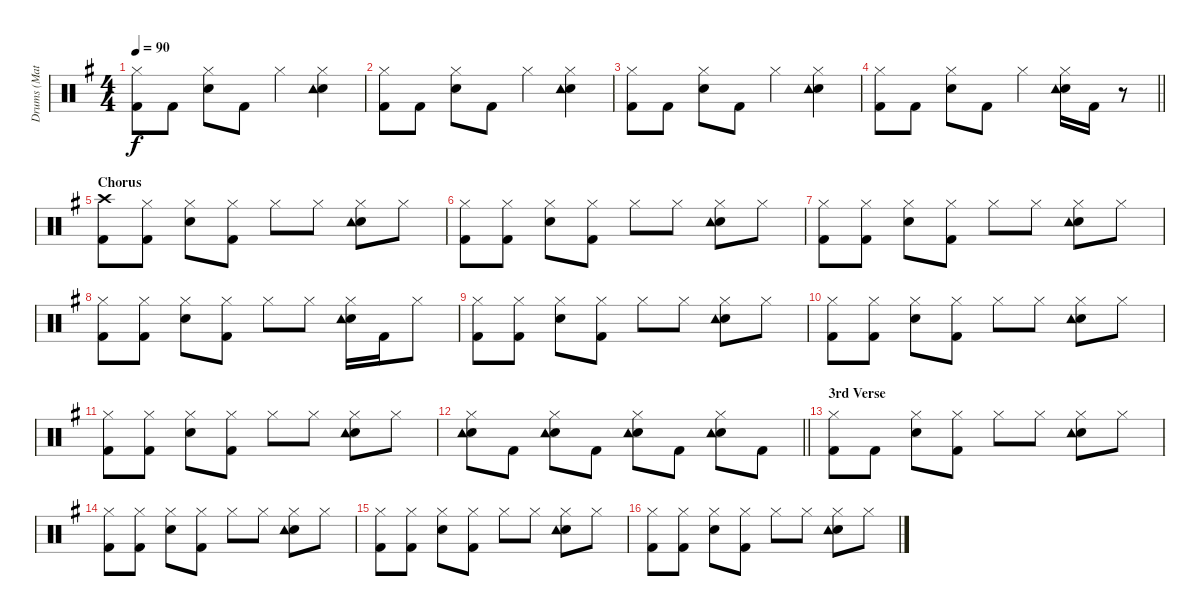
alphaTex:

\track ("Drums (Matt)" "Drums (Mat") {instrument percussion}
\staff {score}
\articulation defaults
\ts (4 4)
\tempo 90
\clef neutral
\ks g
("Hi-Hat (closed)" "Kick (hit) 2").8{dy f} "Kick (hit) 2".8 ("Hi-Hat (closed)" "Snare (hit) 2").8 "Kick (hit) 2".8 "Hi-Hat (closed)".4 ("Hi-Hat (closed)" "Snare (hit) 2" "Tambourine (hit)").4 |
("Hi-Hat (closed)" "Kick (hit) 2").8 "Kick (hit) 2".8 ("Hi-Hat (closed)" "Snare (hit) 2").8 "Kick (hit) 2".8 "Hi-Hat (closed)".4 ("Hi-Hat (closed)" "Snare (hit) 2" "Tambourine (hit)").4 |
("Hi-Hat (closed)" "Kick (hit) 2").8 "Kick (hit) 2".8 ("Hi-Hat (closed)" "Snare (hit) 2").8 "Kick (hit) 2".8 "Hi-Hat (closed)".4 ("Hi-Hat (closed)" "Snare (hit) 2" "Tambourine (hit)").4 |
\barLineRight lightlight
("Hi-Hat (closed)" "Kick (hit) 2").8 "Kick (hit) 2".8 ("Hi-Hat (closed)" "Snare (hit) 2").8 "Kick (hit) 2".8 "Hi-Hat (closed)".4 ("Hi-Hat (closed)" "Snare (hit) 2" "Tambourine (hit)").16 "Kick (hit) 2".16 r.8 |
\section ("" "Chorus")
("Crash high (hit)" "Kick (hit) 2").8 ("Hi-Hat (closed)" "Kick (hit) 2").8 ("Hi-Hat (closed)" "Snare (hit) 2").8 ("Hi-Hat (closed)" "Kick (hit) 2").8 "Hi-Hat (closed)".8 "Hi-Hat (closed)".8 ("Hi-Hat (closed)" "Snare (hit) 2" "Tambourine (hit)").8 "Hi-Hat (closed)".8 |
("Hi-Hat (closed)" "Kick (hit) 2").8 ("Hi-Hat (closed)" "Kick (hit) 2").8 ("Hi-Hat (closed)" "Snare (hit) 2").8 ("Hi-Hat (closed)" "Kick (hit) 2").8 "Hi-Hat (closed)".8 "Hi-Hat (closed)".8 ("Hi-Hat (closed)" "Snare (hit) 2" "Tambourine (hit)").8 "Hi-Hat (closed)".8 |
("Hi-Hat (closed)" "Kick (hit) 2").8 ("Hi-Hat (closed)" "Kick (hit) 2").8 ("Hi-Hat (closed)" "Snare (hit) 2").8 ("Hi-Hat (closed)" "Kick (hit) 2").8 "Hi-Hat (closed)".8 "Hi-Hat (closed)".8 ("Hi-Hat (closed)" "Snare (hit) 2" "Tambourine (hit)").8 "Hi-Hat (closed)".8 |
("Hi-Hat (closed)" "Kick (hit) 2").8 ("Hi-Hat (closed)" "Kick (hit) 2").8 ("Hi-Hat (closed)" "Snare (hit) 2").8 ("Hi-Hat (closed)" "Kick (hit) 2").8 "Hi-Hat (closed)".8 "Hi-Hat (closed)".8 ("Hi-Hat (closed)" "Snare (hit) 2" "Tambourine (hit)").16 "Kick (hit) 2".16 "Hi-Hat (closed)".8 |
("Hi-Hat (closed)" "Kick (hit) 2").8 ("Hi-Hat (closed)" "Kick (hit) 2").8 ("Hi-Hat (closed)" "Snare (hit) 2").8 ("Hi-Hat (closed)" "Kick (hit) 2").8 "Hi-Hat (closed)".8 "Hi-Hat (closed)".8 ("Hi-Hat (closed)" "Snare (hit) 2" "Tambourine (hit)").8 "Hi-Hat (closed)".8 |
("Hi-Hat (closed)" "Kick (hit) 2").8 ("Hi-Hat (closed)" "Kick (hit) 2").8 ("Hi-Hat (closed)" "Snare (hit) 2").8 ("Hi-Hat (closed)" "Kick (hit) 2").8 "Hi-Hat (closed)".8 "Hi-Hat (closed)".8 ("Hi-Hat (closed)" "Snare (hit) 2" "Tambourine (hit)").8 "Hi-Hat (closed)".8 |
("Hi-Hat (closed)" "Kick (hit) 2").8 ("Hi-Hat (closed)" "Kick (hit) 2").8 ("Hi-Hat (closed)" "Snare (hit) 2").8 ("Hi-Hat (closed)" "Kick (hit) 2").8 "Hi-Hat (closed)".8 "Hi-Hat (closed)".8 ("Hi-Hat (closed)" "Snare (hit) 2" "Tambourine (hit)").8 "Hi-Hat (closed)".8 |
\barLineRight lightlight
("Hi-Hat (closed)" "Snare (hit) 2" "Tambourine (hit)").8 "Kick (hit) 2".8 ("Hi-Hat (closed)" "Snare (hit) 2" "Tambourine (hit)").8 "Kick (hit) 2".8 ("Hi-Hat (closed)" "Snare (hit) 2" "Tambourine (hit)").8 "Kick (hit) 2".8 ("Hi-Hat (closed)" "Snare (hit) 2" "Tambourine (hit)").8 "Kick (hit) 2".8 |
\section ("" "3rd Verse")
("Hi-Hat (closed)" "Kick (hit) 2").8 "Kick (hit) 2".8 ("Hi-Hat (closed)" "Snare (hit) 2").8 ("Hi-Hat (closed)" "Kick (hit) 2").8 "Hi-Hat (closed)".8 "Hi-Hat (closed)".8 ("Hi-Hat (closed)" "Snare (hit) 2" "Tambourine (hit)").8 "Hi-Hat (closed)".8 |
("Hi-Hat (closed)" "Kick (hit) 2").8 ("Hi-Hat (closed)" "Kick (hit) 2").8 ("Hi-Hat (closed)" "Snare (hit) 2").8 ("Hi-Hat (closed)" "Kick (hit) 2").8 "Hi-Hat (closed)".8 "Hi-Hat (closed)".8 ("Hi-Hat (closed)" "Snare (hit) 2" "Tambourine (hit)").8 "Hi-Hat (closed)".8 |
("Hi-Hat (closed)" "Kick (hit) 2").8 ("Hi-Hat (closed)" "Kick (hit) 2").8 ("Hi-Hat (closed)" "Snare (hit) 2").8 ("Hi-Hat (closed)" "Kick (hit) 2").8 "Hi-Hat (closed)".8 "Hi-Hat (closed)".8 ("Hi-Hat (closed)" "Snare (hit) 2" "Tambourine (hit)").8 "Hi-Hat (closed)".8 |
("Hi-Hat (closed)" "Kick (hit) 2").8 ("Hi-Hat (closed)" "Kick (hit) 2").8 ("Hi-Hat (closed)" "Snare (hit) 2").8 ("Hi-Hat (closed)" "Kick (hit) 2").8 "Hi-Hat (closed)".8 "Hi-Hat (closed)".8 ("Hi-Hat (closed)" "Snare (hit) 2" "Tambourine (hit)").8 "Hi-Hat (closed)".8
